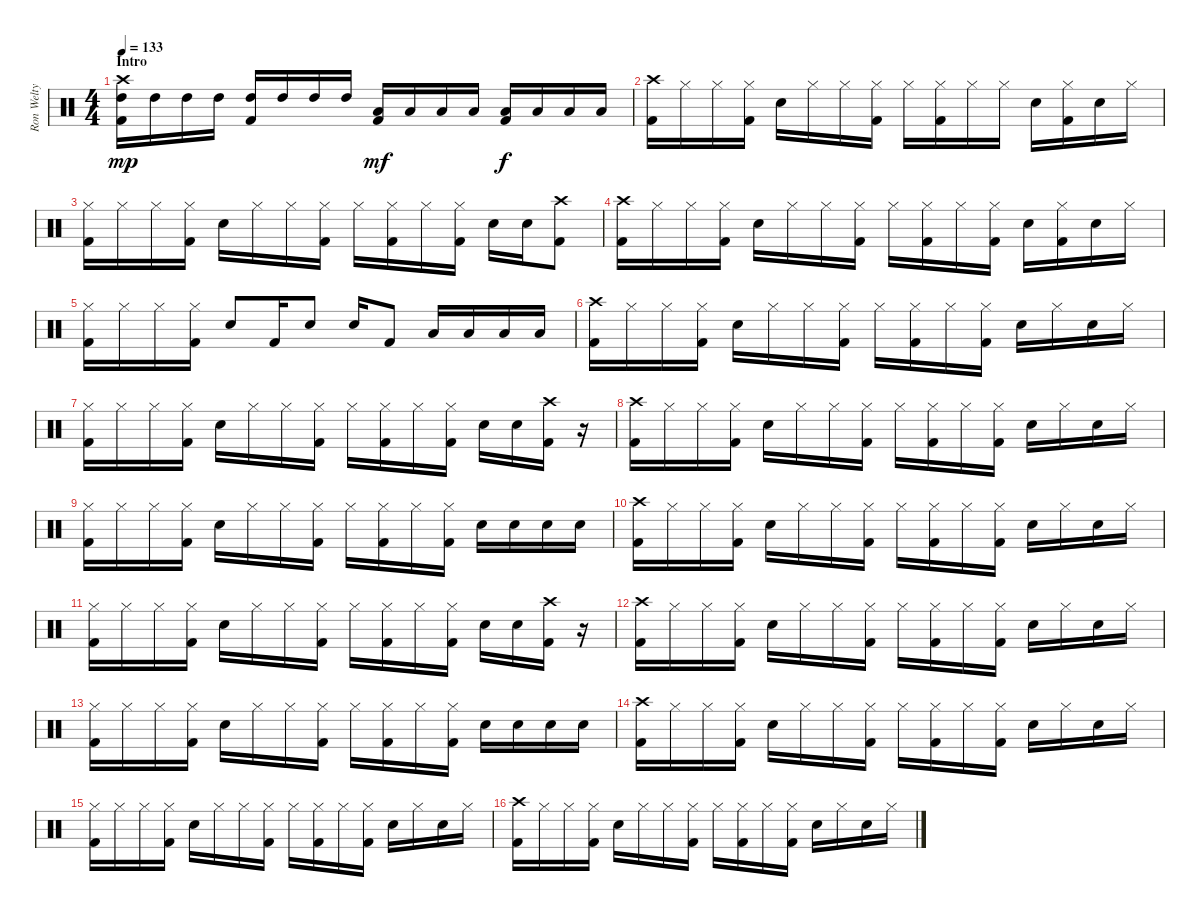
\track ("Ron Welty - Drums" "Ron Welty ") {instrument percussion}
\staff {score}
\articulation defaults
\ts (4 4)
\section ("" "Intro")
\tempo 133
\clef neutral
\ks c
("Crash high (hit)" "High Tom (hit)" "Kick (hit) 2").16{dy mp} "High Tom (hit)".16 "High Tom (hit)".16 "High Tom (hit)".16 ("High Tom (hit)" "Kick (hit) 2").16 "High Tom (hit)".16 "High Tom (hit)".16 "High Tom (hit)".16 ("Low Tom (hit)" "Kick (hit) 2").16{dy mf} "Low Tom (hit)".16 "Low Tom (hit)".16 "Low Tom (hit)".16 ("Low Floor Tom (hit)" "Kick (hit) 2").16{dy f} "Low Floor Tom (hit)".16 "Low Floor Tom (hit)".16 "Low Floor Tom (hit)".16 |
("Crash high (hit)" "Kick (hit) 2").16 "Hi-Hat (closed)".16 "Hi-Hat (closed)".16 ("Hi-Hat (closed)" "Kick (hit) 2").16 "Snare (hit) 2".16 "Hi-Hat (closed)".16 "Hi-Hat (closed)".16 ("Hi-Hat (closed)" "Kick (hit) 2").16 "Hi-Hat (closed)".16 ("Hi-Hat (closed)" "Kick (hit) 2").16 "Hi-Hat (closed)".16 "Hi-Hat (closed)".16 "Snare (hit) 2".16 ("Hi-Hat (closed)" "Kick (hit) 2").16 "Snare (hit) 2".16 "Hi-Hat (closed)".16 |
("Hi-Hat (closed)" "Kick (hit) 2").16 "Hi-Hat (closed)".16 "Hi-Hat (closed)".16 ("Hi-Hat (closed)" "Kick (hit) 2").16 "Snare (hit) 2".16 "Hi-Hat (closed)".16 "Hi-Hat (closed)".16 ("Hi-Hat (closed)" "Kick (hit) 2").16 "Hi-Hat (closed)".16 ("Hi-Hat (closed)" "Kick (hit) 2").16 "Hi-Hat (closed)".16 ("Hi-Hat (closed)" "Kick (hit) 2").16 "Snare (hit) 2".16 "Snare (hit) 2".16 ("Crash high (hit)" "Kick (hit) 2").8 |
("Crash high (hit)" "Kick (hit) 2").16 "Hi-Hat (closed)".16 "Hi-Hat (closed)".16 ("Hi-Hat (closed)" "Kick (hit) 2").16 "Snare (hit) 2".16 "Hi-Hat (closed)".16 "Hi-Hat (closed)".16 ("Hi-Hat (closed)" "Kick (hit) 2").16 "Hi-Hat (closed)".16 ("Hi-Hat (closed)" "Kick (hit) 2").16 "Hi-Hat (closed)".16 ("Hi-Hat (closed)" "Kick (hit) 2").16 "Snare (hit) 2".16 ("Hi-Hat (closed)" "Kick (hit) 2").16 "Snare (hit) 2".16 "Hi-Hat (closed)".16 |
("Hi-Hat (closed)" "Kick (hit) 2").16 "Hi-Hat (closed)".16 "Hi-Hat (closed)".16 ("Hi-Hat (closed)" "Kick (hit) 2").16 "Snare (hit) 2".8 "Kick (hit) 2".16 "Snare (hit) 2".8 "Snare (hit) 2".16 "Kick (hit) 2".8 "Low Tom (hit)".16 "Low Tom (hit)".16 "Low Floor Tom (hit)".16 "Low Floor Tom (hit)".16 |
("Crash high (hit)" "Kick (hit) 2").16 "Hi-Hat (closed)".16 "Hi-Hat (closed)".16 ("Hi-Hat (closed)" "Kick (hit) 2").16 "Snare (hit) 2".16 "Hi-Hat (closed)".16 "Hi-Hat (closed)".16 ("Hi-Hat (closed)" "Kick (hit) 2").16 "Hi-Hat (closed)".16 ("Hi-Hat (closed)" "Kick (hit) 2").16 "Hi-Hat (closed)".16 ("Hi-Hat (closed)" "Kick (hit) 2").16 "Snare (hit) 2".16 "Hi-Hat (closed)".16 "Snare (hit) 2".16 "Hi-Hat (closed)".16 |
("Hi-Hat (closed)" "Kick (hit) 2").16 "Hi-Hat (closed)".16 "Hi-Hat (closed)".16 ("Hi-Hat (closed)" "Kick (hit) 2").16 "Snare (hit) 2".16 "Hi-Hat (closed)".16 "Hi-Hat (closed)".16 ("Hi-Hat (closed)" "Kick (hit) 2").16 "Hi-Hat (closed)".16 ("Hi-Hat (closed)" "Kick (hit) 2").16 "Hi-Hat (closed)".16 ("Hi-Hat (closed)" "Kick (hit) 2").16 "Snare (hit) 2".16 "Snare (hit) 2".16 ("Crash high (hit)" "Kick (hit) 2").16 r.16 |
("Crash high (hit)" "Kick (hit) 2").16 "Hi-Hat (closed)".16 "Hi-Hat (closed)".16 ("Hi-Hat (closed)" "Kick (hit) 2").16 "Snare (hit) 2".16 "Hi-Hat (closed)".16 "Hi-Hat (closed)".16 ("Hi-Hat (closed)" "Kick (hit) 2").16 "Hi-Hat (closed)".16 ("Hi-Hat (closed)" "Kick (hit) 2").16 "Hi-Hat (closed)".16 ("Hi-Hat (closed)" "Kick (hit) 2").16 "Snare (hit) 2".16 "Hi-Hat (closed)".16 "Snare (hit) 2".16 "Hi-Hat (closed)".16 |
("Hi-Hat (closed)" "Kick (hit) 2").16 "Hi-Hat (closed)".16 "Hi-Hat (closed)".16 ("Hi-Hat (closed)" "Kick (hit) 2").16 "Snare (hit) 2".16 "Hi-Hat (closed)".16 "Hi-Hat (closed)".16 ("Hi-Hat (closed)" "Kick (hit) 2").16 "Hi-Hat (closed)".16 ("Hi-Hat (closed)" "Kick (hit) 2").16 "Hi-Hat (closed)".16 ("Hi-Hat (closed)" "Kick (hit) 2").16 "Snare (hit) 2".16 "Snare (hit) 2".16 "Snare (hit) 2".16 "Snare (hit) 2".16 |
("Crash high (hit)" "Kick (hit) 2").16 "Hi-Hat (closed)".16 "Hi-Hat (closed)".16 ("Hi-Hat (closed)" "Kick (hit) 2").16 "Snare (hit) 2".16 "Hi-Hat (closed)".16 "Hi-Hat (closed)".16 ("Hi-Hat (closed)" "Kick (hit) 2").16 "Hi-Hat (closed)".16 ("Hi-Hat (closed)" "Kick (hit) 2").16 "Hi-Hat (closed)".16 ("Hi-Hat (closed)" "Kick (hit) 2").16 "Snare (hit) 2".16 "Hi-Hat (closed)".16 "Snare (hit) 2".16 "Hi-Hat (closed)".16 |
("Hi-Hat (closed)" "Kick (hit) 2").16 "Hi-Hat (closed)".16 "Hi-Hat (closed)".16 ("Hi-Hat (closed)" "Kick (hit) 2").16 "Snare (hit) 2".16 "Hi-Hat (closed)".16 "Hi-Hat (closed)".16 ("Hi-Hat (closed)" "Kick (hit) 2").16 "Hi-Hat (closed)".16 ("Hi-Hat (closed)" "Kick (hit) 2").16 "Hi-Hat (closed)".16 ("Hi-Hat (closed)" "Kick (hit) 2").16 "Snare (hit) 2".16 "Snare (hit) 2".16 ("Crash high (hit)" "Kick (hit) 2").16 r.16 |
("Crash high (hit)" "Kick (hit) 2").16 "Hi-Hat (closed)".16 "Hi-Hat (closed)".16 ("Hi-Hat (closed)" "Kick (hit) 2").16 "Snare (hit) 2".16 "Hi-Hat (closed)".16 "Hi-Hat (closed)".16 ("Hi-Hat (closed)" "Kick (hit) 2").16 "Hi-Hat (closed)".16 ("Hi-Hat (closed)" "Kick (hit) 2").16 "Hi-Hat (closed)".16 ("Hi-Hat (closed)" "Kick (hit) 2").16 "Snare (hit) 2".16 "Hi-Hat (closed)".16 "Snare (hit) 2".16 "Hi-Hat (closed)".16 |
("Hi-Hat (closed)" "Kick (hit) 2").16 "Hi-Hat (closed)".16 "Hi-Hat (closed)".16 ("Hi-Hat (closed)" "Kick (hit) 2").16 "Snare (hit) 2".16 "Hi-Hat (closed)".16 "Hi-Hat (closed)".16 ("Hi-Hat (closed)" "Kick (hit) 2").16 "Hi-Hat (closed)".16 ("Hi-Hat (closed)" "Kick (hit) 2").16 "Hi-Hat (closed)".16 ("Hi-Hat (closed)" "Kick (hit) 2").16 "Snare (hit) 2".16 "Snare (hit) 2".16 "Snare (hit) 2".16 "Snare (hit) 2".16 |
("Crash high (hit)" "Kick (hit) 2").16 "Hi-Hat (closed)".16 "Hi-Hat (closed)".16 ("Hi-Hat (closed)" "Kick (hit) 2").16 "Snare (hit) 2".16 "Hi-Hat (closed)".16 "Hi-Hat (closed)".16 ("Hi-Hat (closed)" "Kick (hit) 2").16 "Hi-Hat (closed)".16 ("Hi-Hat (closed)" "Kick (hit) 2").16 "Hi-Hat (closed)".16 ("Hi-Hat (closed)" "Kick (hit) 2").16 "Snare (hit) 2".16 "Hi-Hat (closed)".16 "Snare (hit) 2".16 "Hi-Hat (closed)".16 |
("Hi-Hat (closed)" "Kick (hit) 2").16 "Hi-Hat (closed)".16 "Hi-Hat (closed)".16 ("Hi-Hat (closed)" "Kick (hit) 2").16 "Snare (hit) 2".16 "Hi-Hat (closed)".16 "Hi-Hat (closed)".16 ("Hi-Hat (closed)" "Kick (hit) 2").16 "Hi-Hat (closed)".16 ("Hi-Hat (closed)" "Kick (hit) 2").16 "Hi-Hat (closed)".16 ("Hi-Hat (closed)" "Kick (hit) 2").16 "Snare (hit) 2".16 "Hi-Hat (closed)".16 "Snare (hit) 2".16 "Hi-Hat (closed)".16 |
("Crash high (hit)" "Kick (hit) 2").16 "Hi-Hat (closed)".16 "Hi-Hat (closed)".16 ("Hi-Hat (closed)" "Kick (hit) 2").16 "Snare (hit) 2".16 "Hi-Hat (closed)".16 "Hi-Hat (closed)".16 ("Hi-Hat (closed)" "Kick (hit) 2").16 "Hi-Hat (closed)".16 ("Hi-Hat (closed)" "Kick (hit) 2").16 "Hi-Hat (closed)".16 ("Hi-Hat (closed)" "Kick (hit) 2").16 "Snare (hit) 2".16 "Hi-Hat (closed)".16 "Snare (hit) 2".16 "Hi-Hat (closed)".16
